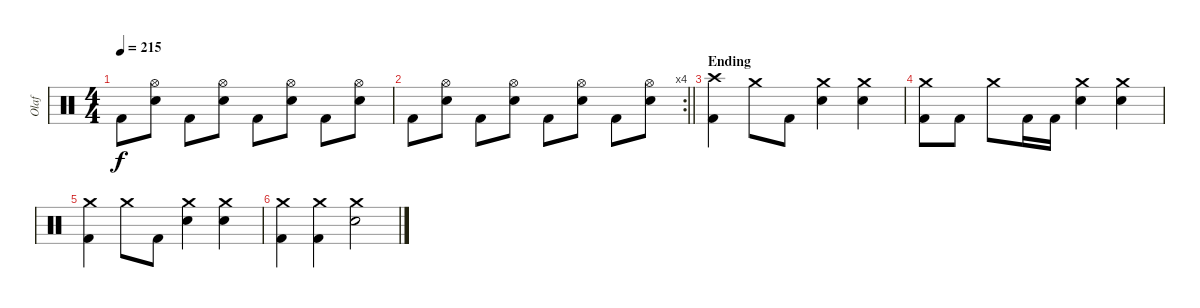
\track ("Olaf" "Olaf") {instrument percussion}
\staff {score}
\articulation defaults
\ts (4 4)
\tempo 215
\clef neutral
\ks c "Kick (hit) 2".8{dy f}
("Hi-Hat (open)" "Electric Snare (hit)").8 "Kick (hit) 2".8 ("Hi-Hat (open)" "Electric Snare (hit)").8 "Kick (hit) 2".8 ("Hi-Hat (open)" "Electric Snare (hit)").8 "Kick (hit) 2".8 ("Hi-Hat (open)" "Electric Snare (hit)").8 |
\rc 4
\barLineRight lightlight "Kick (hit) 2".8
("Hi-Hat (open)" "Electric Snare (hit)").8 "Kick (hit) 2".8 ("Hi-Hat (open)" "Electric Snare (hit)").8 "Kick (hit) 2".8 ("Hi-Hat (open)" "Electric Snare (hit)").8 "Kick (hit) 2".8 ("Hi-Hat (open)" "Electric Snare (hit)").8 |
\section ("" "Ending")
("Crash high (hit)" "Kick (hit) 2").4 "Crash medium (hit)".8 "Kick (hit) 2".8 ("Crash medium (hit)" "Electric Snare (hit)").4 ("Crash medium (hit)" "Electric Snare (hit)").4 |
("Crash medium (hit)" "Kick (hit) 2").8 "Kick (hit) 2".8 "Crash medium (hit)".8 "Kick (hit) 2".16 "Kick (hit) 2".16 ("Crash medium (hit)" "Electric Snare (hit)").4 ("Crash medium (hit)" "Electric Snare (hit)").4 |
("Crash medium (hit)" "Kick (hit) 2").4 "Crash medium (hit)".8 "Kick (hit) 2".8 ("Crash medium (hit)" "Electric Snare (hit)").4 ("Crash medium (hit)" "Electric Snare (hit)").4 |
("Crash medium (hit)" "Kick (hit) 2").4 ("Crash medium (hit)" "Kick (hit) 2").4 ("Crash medium (hit)" "Electric Snare (hit)").2
